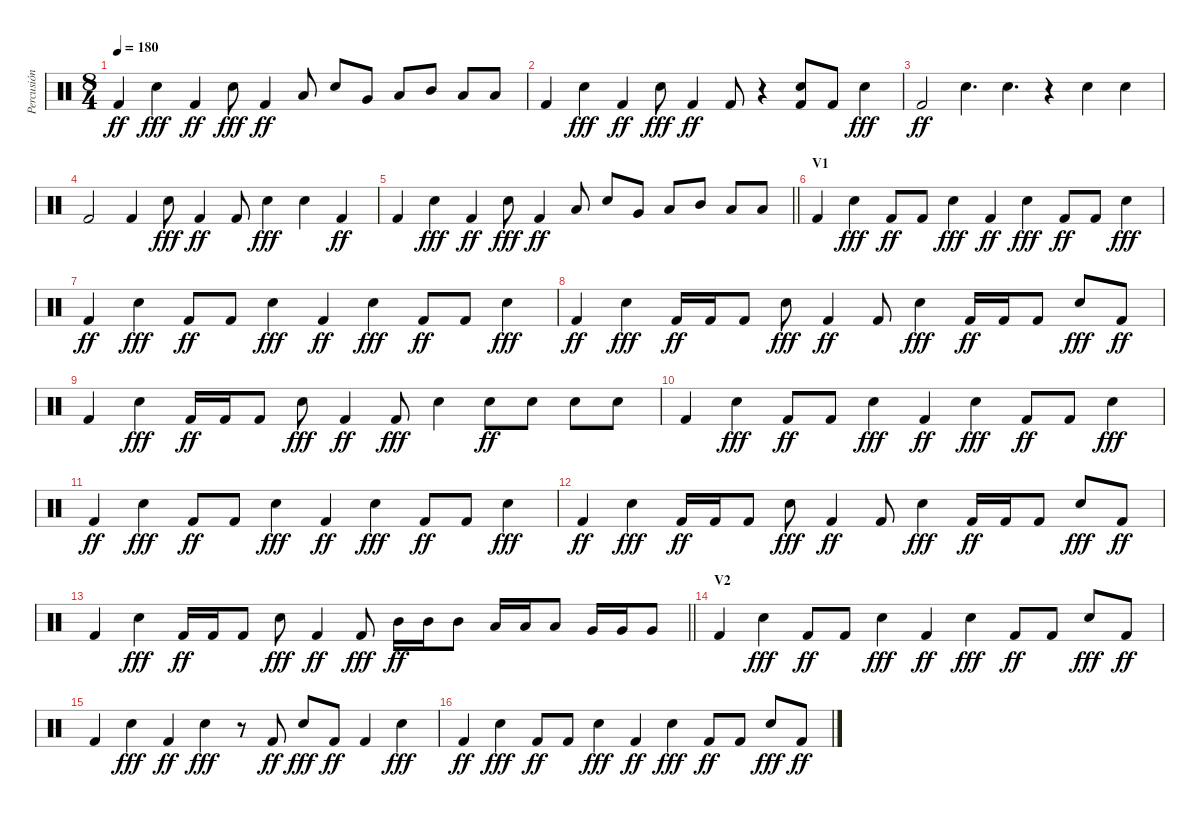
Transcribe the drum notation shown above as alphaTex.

\track ("Percusión" "Percusión") {instrument percussion}
\staff {score}
\articulation defaults
\ts (8 4)
\tempo 180
\clef neutral
\ks c "Kick (hit) 2".4{dy ff} "Electric Snare (hit)".4{dy fff} "Kick (hit) 2".4{dy ff} "Electric Snare (hit)".8{dy fff} "Kick (hit) 2".4{dy ff} "Low Floor Tom (hit)".8 "Electric Snare (hit)".8 "Very Low Tom (hit)".8 "Low Tom (hit)".8 "Mid Tom (hit)".8 "Low Tom (hit)".8 "Low Tom (hit)".8
|
"Kick (hit) 2".4 "Electric Snare (hit)".4{dy fff} "Kick (hit) 2".4{dy ff} "Electric Snare (hit)".8{dy fff} "Kick (hit) 2".4{dy ff} "Kick (hit) 2".8 r.4 ("Electric Snare (hit)" "Kick (hit) 2").8 "Kick (hit) 2".8 "Electric Snare (hit)".4{dy fff} |
"Kick (hit) 2".2{dy ff} "Electric Snare (hit)".4{d} "Electric Snare (hit)".4{d} r.4 "Electric Snare (hit)".4 "Electric Snare (hit)".4 |
"Kick (hit) 2".2 "Kick (hit) 2".4 "Electric Snare (hit)".8{dy fff} "Kick (hit) 2".4{dy ff} "Kick (hit) 2".8 "Electric Snare (hit)".4{dy fff} "Electric Snare (hit)".4 "Kick (hit) 2".4{dy ff} |
\barLineRight lightlight "Kick (hit) 2".4 "Electric Snare (hit)".4{dy fff} "Kick (hit) 2".4{dy ff} "Electric Snare (hit)".8{dy fff} "Kick (hit) 2".4{dy ff} "Low Floor Tom (hit)".8 "Electric Snare (hit)".8 "Very Low Tom (hit)".8 "Low Tom (hit)".8 "Mid Tom (hit)".8 "Low Tom (hit)".8 "Low Tom (hit)".8
|
\section ("" "V1")
"Kick (hit) 2".4 "Electric Snare (hit)".4{dy fff} "Kick (hit) 2".8{dy ff} "Kick (hit) 2".8 "Electric Snare (hit)".4{dy fff} "Kick (hit) 2".4{dy ff} "Electric Snare (hit)".4{dy fff} "Kick (hit) 2".8{dy ff} "Kick (hit) 2".8 "Electric Snare (hit)".4{dy fff} |
"Kick (hit) 2".4{dy ff} "Electric Snare (hit)".4{dy fff} "Kick (hit) 2".8{dy ff} "Kick (hit) 2".8 "Electric Snare (hit)".4{dy fff} "Kick (hit) 2".4{dy ff} "Electric Snare (hit)".4{dy fff} "Kick (hit) 2".8{dy ff} "Kick (hit) 2".8 "Electric Snare (hit)".4{dy fff} |
"Kick (hit) 2".4{dy ff} "Electric Snare (hit)".4{dy fff} "Kick (hit) 2".16{dy ff} "Kick (hit) 2".16 "Kick (hit) 2".8 "Electric Snare (hit)".8{dy fff} "Kick (hit) 2".4{dy ff} "Kick (hit) 2".8 "Electric Snare (hit)".4{dy fff} "Kick (hit) 2".16{dy ff} "Kick (hit) 2".16 "Kick (hit) 2".8 "Electric Snare (hit)".8{dy fff} "Kick (hit) 2".8{dy ff} |
"Kick (hit) 2".4 "Electric Snare (hit)".4{dy fff} "Kick (hit) 2".16{dy ff} "Kick (hit) 2".16 "Kick (hit) 2".8 "Electric Snare (hit)".8{dy fff} "Kick (hit) 2".4{dy ff} "Kick (hit) 2".8{dy fff} "Electric Snare (hit)".4 "Electric Snare (hit)".8{dy ff} "Electric Snare (hit)".8 "Electric Snare (hit)".8 "Electric Snare (hit)".8 |
"Kick (hit) 2".4 "Electric Snare (hit)".4{dy fff} "Kick (hit) 2".8{dy ff} "Kick (hit) 2".8 "Electric Snare (hit)".4{dy fff} "Kick (hit) 2".4{dy ff} "Electric Snare (hit)".4{dy fff} "Kick (hit) 2".8{dy ff} "Kick (hit) 2".8 "Electric Snare (hit)".4{dy fff} |
"Kick (hit) 2".4{dy ff} "Electric Snare (hit)".4{dy fff} "Kick (hit) 2".8{dy ff} "Kick (hit) 2".8 "Electric Snare (hit)".4{dy fff} "Kick (hit) 2".4{dy ff} "Electric Snare (hit)".4{dy fff} "Kick (hit) 2".8{dy ff} "Kick (hit) 2".8 "Electric Snare (hit)".4{dy fff} |
"Kick (hit) 2".4{dy ff} "Electric Snare (hit)".4{dy fff} "Kick (hit) 2".16{dy ff} "Kick (hit) 2".16 "Kick (hit) 2".8 "Electric Snare (hit)".8{dy fff} "Kick (hit) 2".4{dy ff} "Kick (hit) 2".8 "Electric Snare (hit)".4{dy fff} "Kick (hit) 2".16{dy ff} "Kick (hit) 2".16 "Kick (hit) 2".8 "Electric Snare (hit)".8{dy fff} "Kick (hit) 2".8{dy ff} |
\barLineRight lightlight "Kick (hit) 2".4 "Electric Snare (hit)".4{dy fff} "Kick (hit) 2".16{dy ff} "Kick (hit) 2".16 "Kick (hit) 2".8 "Electric Snare (hit)".8{dy fff} "Kick (hit) 2".4{dy ff} "Kick (hit) 2".8{dy fff} "Mid Tom (hit)".16{dy ff} "Mid Tom (hit)".16 "Mid Tom (hit)".8 "Low Tom (hit)".16 "Low Tom (hit)".16 "Low Tom (hit)".8 "Very Low Tom (hit)".16 "Very Low Tom (hit)".16 "Very Low Tom (hit)".8
|
\section ("" "V2")
"Kick (hit) 2".4 "Electric Snare (hit)".4{dy fff} "Kick (hit) 2".8{dy ff} "Kick (hit) 2".8 "Electric Snare (hit)".4{dy fff} "Kick (hit) 2".4{dy ff} "Electric Snare (hit)".4{dy fff} "Kick (hit) 2".8{dy ff} "Kick (hit) 2".8 "Electric Snare (hit)".8{dy fff} "Kick (hit) 2".8{dy ff} |
"Kick (hit) 2".4 "Electric Snare (hit)".4{dy fff} "Kick (hit) 2".4{dy ff} "Electric Snare (hit)".4{dy fff} r.8 "Kick (hit) 2".8{dy ff} "Electric Snare (hit)".8{dy fff} "Kick (hit) 2".8{dy ff} "Kick (hit) 2".4 "Electric Snare (hit)".4{dy fff} |
"Kick (hit) 2".4{dy ff} "Electric Snare (hit)".4{dy fff} "Kick (hit) 2".8{dy ff} "Kick (hit) 2".8 "Electric Snare (hit)".4{dy fff} "Kick (hit) 2".4{dy ff} "Electric Snare (hit)".4{dy fff} "Kick (hit) 2".8{dy ff} "Kick (hit) 2".8 "Electric Snare (hit)".8{dy fff} "Kick (hit) 2".8{dy ff}
